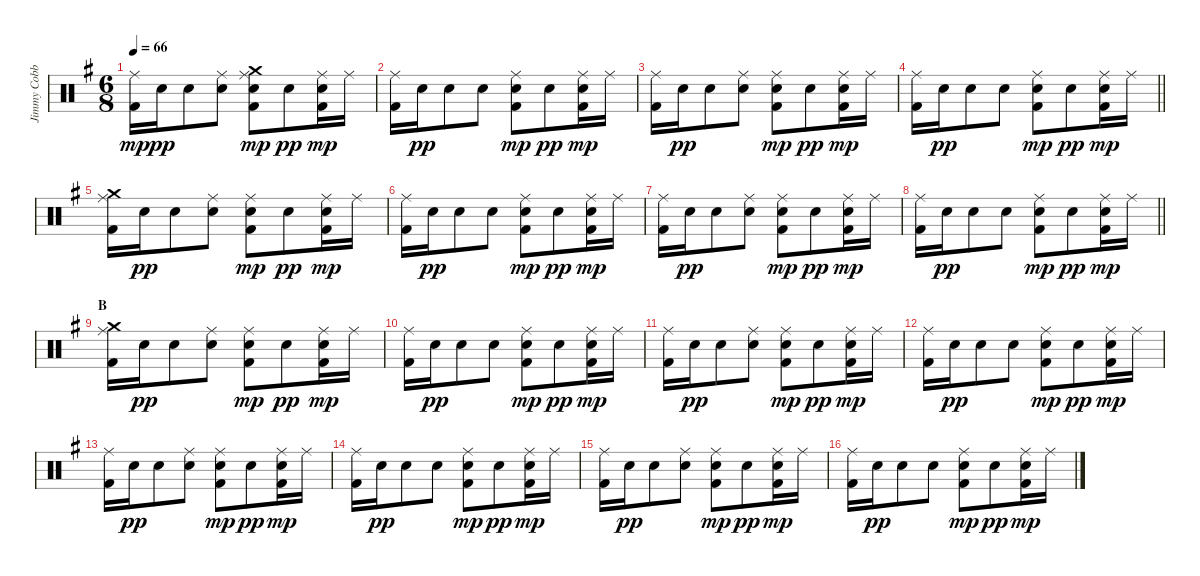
\track ("Jimmy Cobb" "Jimmy Cobb") {instrument percussion}
\staff {score}
\articulation defaults
\ts (6 8)
\tempo 66
\clef neutral
\ks g
("Ride (middle)" "Kick (hit) 2").16{dy mp} "Snare (hit) 2".16{dy pp} "Snare (hit) 2".8 ("Ride (middle)" "Snare (hit) 2").8 ("Ride (middle)" "Crash medium (hit)" "Electric Snare (hit)" "Kick (hit) 2").8{dy mp} "Snare (hit) 2".8{dy pp} ("Ride (middle)" "Snare (hit) 2" "Kick (hit) 2").16{dy mp} "Ride (middle)".16 |
("Ride (middle)" "Kick (hit) 2").16 "Snare (hit) 2".16{dy pp} "Snare (hit) 2".8 "Snare (hit) 2".8 ("Ride (middle)" "Snare (hit) 2" "Kick (hit) 2").8{dy mp} "Snare (hit) 2".8{dy pp} ("Ride (middle)" "Snare (hit) 2" "Kick (hit) 2").16{dy mp} "Ride (middle)".16 |
("Ride (middle)" "Kick (hit) 2").16 "Snare (hit) 2".16{dy pp} "Snare (hit) 2".8 ("Ride (middle)" "Snare (hit) 2").8 ("Ride (middle)" "Snare (hit) 2" "Kick (hit) 2").8{dy mp} "Snare (hit) 2".8{dy pp} ("Ride (middle)" "Snare (hit) 2" "Kick (hit) 2").16{dy mp} "Ride (middle)".16 |
\barLineRight lightlight
("Ride (middle)" "Kick (hit) 2").16 "Snare (hit) 2".16{dy pp} "Snare (hit) 2".8 "Snare (hit) 2".8 ("Ride (middle)" "Snare (hit) 2" "Kick (hit) 2").8{dy mp} "Snare (hit) 2".8{dy pp} ("Ride (middle)" "Snare (hit) 2" "Kick (hit) 2").16{dy mp} "Ride (middle)".16 |
\section ("" "")
("Ride (middle)" "Crash medium (hit)" "Kick (hit) 2").16 "Snare (hit) 2".16{dy pp} "Snare (hit) 2".8 ("Ride (middle)" "Snare (hit) 2").8 ("Ride (middle)" "Snare (hit) 2" "Kick (hit) 2").8{dy mp} "Snare (hit) 2".8{dy pp} ("Ride (middle)" "Snare (hit) 2" "Kick (hit) 2").16{dy mp} "Ride (middle)".16 |
("Ride (middle)" "Kick (hit) 2").16 "Snare (hit) 2".16{dy pp} "Snare (hit) 2".8 "Snare (hit) 2".8 ("Ride (middle)" "Snare (hit) 2" "Kick (hit) 2").8{dy mp} "Snare (hit) 2".8{dy pp} ("Ride (middle)" "Snare (hit) 2" "Kick (hit) 2").16{dy mp} "Ride (middle)".16 |
("Ride (middle)" "Kick (hit) 2").16 "Snare (hit) 2".16{dy pp} "Snare (hit) 2".8 ("Ride (middle)" "Snare (hit) 2").8 ("Ride (middle)" "Snare (hit) 2" "Kick (hit) 2").8{dy mp} "Snare (hit) 2".8{dy pp} ("Ride (middle)" "Snare (hit) 2" "Kick (hit) 2").16{dy mp} "Ride (middle)".16 |
\barLineRight lightlight
("Ride (middle)" "Kick (hit) 2").16 "Snare (hit) 2".16{dy pp} "Snare (hit) 2".8 "Snare (hit) 2".8 ("Ride (middle)" "Snare (hit) 2" "Kick (hit) 2").8{dy mp} "Snare (hit) 2".8{dy pp} ("Ride (middle)" "Snare (hit) 2" "Kick (hit) 2").16{dy mp} "Ride (middle)".16 |
\section ("" "B")
("Ride (middle)" "Crash medium (hit)" "Kick (hit) 2").16 "Snare (hit) 2".16{dy pp} "Snare (hit) 2".8 ("Ride (middle)" "Snare (hit) 2").8 ("Ride (middle)" "Snare (hit) 2" "Kick (hit) 2").8{dy mp} "Snare (hit) 2".8{dy pp} ("Ride (middle)" "Snare (hit) 2" "Kick (hit) 2").16{dy mp} "Ride (middle)".16 |
("Ride (middle)" "Kick (hit) 2").16 "Snare (hit) 2".16{dy pp} "Snare (hit) 2".8 "Snare (hit) 2".8 ("Ride (middle)" "Snare (hit) 2" "Kick (hit) 2").8{dy mp} "Snare (hit) 2".8{dy pp} ("Ride (middle)" "Snare (hit) 2" "Kick (hit) 2").16{dy mp} "Ride (middle)".16 |
("Ride (middle)" "Kick (hit) 2").16 "Snare (hit) 2".16{dy pp} "Snare (hit) 2".8 ("Ride (middle)" "Snare (hit) 2").8 ("Ride (middle)" "Snare (hit) 2" "Kick (hit) 2").8{dy mp} "Snare (hit) 2".8{dy pp} ("Ride (middle)" "Snare (hit) 2" "Kick (hit) 2").16{dy mp} "Ride (middle)".16 |
("Ride (middle)" "Kick (hit) 2").16 "Snare (hit) 2".16{dy pp} "Snare (hit) 2".8 "Snare (hit) 2".8 ("Ride (middle)" "Snare (hit) 2" "Kick (hit) 2").8{dy mp} "Snare (hit) 2".8{dy pp} ("Ride (middle)" "Snare (hit) 2" "Kick (hit) 2").16{dy mp} "Ride (middle)".16 |
("Ride (middle)" "Kick (hit) 2").16 "Snare (hit) 2".16{dy pp} "Snare (hit) 2".8 ("Ride (middle)" "Snare (hit) 2").8 ("Ride (middle)" "Snare (hit) 2" "Kick (hit) 2").8{dy mp} "Snare (hit) 2".8{dy pp} ("Ride (middle)" "Snare (hit) 2" "Kick (hit) 2").16{dy mp} "Ride (middle)".16 |
("Ride (middle)" "Kick (hit) 2").16 "Snare (hit) 2".16{dy pp} "Snare (hit) 2".8 "Snare (hit) 2".8 ("Ride (middle)" "Snare (hit) 2" "Kick (hit) 2").8{dy mp} "Snare (hit) 2".8{dy pp} ("Ride (middle)" "Snare (hit) 2" "Kick (hit) 2").16{dy mp} "Ride (middle)".16 |
("Ride (middle)" "Kick (hit) 2").16 "Snare (hit) 2".16{dy pp} "Snare (hit) 2".8 ("Ride (middle)" "Snare (hit) 2").8 ("Ride (middle)" "Snare (hit) 2" "Kick (hit) 2").8{dy mp} "Snare (hit) 2".8{dy pp} ("Ride (middle)" "Snare (hit) 2" "Kick (hit) 2").16{dy mp} "Ride (middle)".16 |
("Ride (middle)" "Kick (hit) 2").16 "Snare (hit) 2".16{dy pp} "Snare (hit) 2".8 "Snare (hit) 2".8 ("Ride (middle)" "Snare (hit) 2" "Kick (hit) 2").8{dy mp} "Snare (hit) 2".8{dy pp} ("Ride (middle)" "Snare (hit) 2" "Kick (hit) 2").16{dy mp} "Ride (middle)".16
